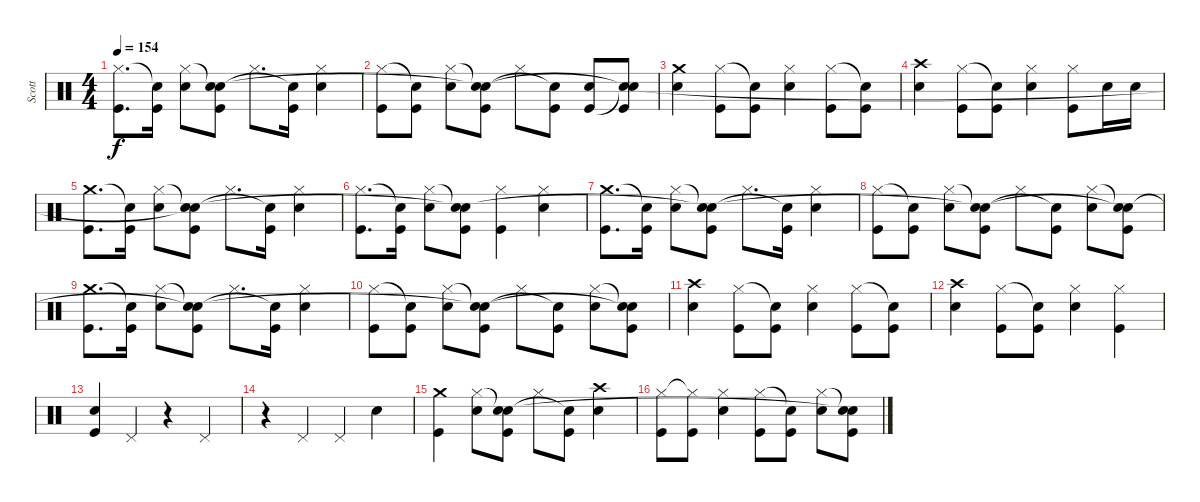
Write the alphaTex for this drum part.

\track ("Scott" "Scott") {instrument percussion}
\staff {score}
\articulation defaults
\ts (4 4)
\tempo 154
\clef neutral
\ks c
("Kick (hit)" "Hi-Hat (closed)").8{d dy f} ("Kick (hit)" "Snare (hit)"{t}).16 ("Snare (hit) 2" "Hi-Hat (closed)").8 ("Kick (hit)" "Snare (hit)"{t} "Snare (hit)"{t}).8 "Hi-Hat (closed)".8{d} ("Kick (hit)" "Snare (hit)"{t}).16 ("Snare (hit) 2" "Hi-Hat (closed)").4 |
("Kick (hit)" "Hi-Hat (closed)").8 ("Kick (hit)" "Snare (hit)"{t}).8 ("Snare (hit) 2" "Hi-Hat (closed)").8 ("Kick (hit)" "Snare (hit)"{t} "Snare (hit)"{t}).8 "Hi-Hat (closed)".8 ("Kick (hit)" "Snare (hit)"{t}).8 ("Snare (hit) 2" "Kick (hit)").8 ("Kick (hit)" "Snare (hit)"{t} "Snare (hit)"{t}).8 |
("Snare (hit) 2" "Crash medium (hit)").4 ("Kick (hit)" "Hi-Hat (closed)").8 ("Kick (hit)" "Snare (hit)"{t}).8 ("Snare (hit) 2" "Hi-Hat (closed)").4 ("Kick (hit)" "Hi-Hat (closed)").8 ("Kick (hit)" "Snare (hit)"{t}).8 |
("Snare (hit) 2" "Crash high (hit)").4 ("Kick (hit)" "Hi-Hat (closed)").8 ("Kick (hit)" "Snare (hit)"{t}).8 ("Snare (hit) 2" "Hi-Hat (closed)").4 ("Kick (hit)" "Hi-Hat (closed)").8 "Snare (hit) 2".16 "Snare (hit) 2".16 |
("Kick (hit)" "Crash medium (hit)").8{d} ("Kick (hit)" "Snare (hit)"{t}).16 ("Snare (hit) 2" "Hi-Hat (closed)").8 ("Kick (hit)" "Snare (hit)"{t} "Snare (hit)"{t}).8 "Hi-Hat (closed)".8{d} ("Kick (hit)" "Snare (hit)"{t}).16 ("Snare (hit) 2" "Hi-Hat (closed)").4 |
("Kick (hit)" "Hi-Hat (closed)").8{d} ("Kick (hit)" "Snare (hit)"{t}).16 ("Snare (hit) 2" "Hi-Hat (closed)").8 ("Kick (hit)" "Snare (hit)"{t} "Snare (hit)"{t}).8 ("Kick (hit)" "Hi-Hat (closed)").4 ("Snare (hit) 2" "Hi-Hat (closed)").4 |
("Kick (hit)" "Crash medium (hit)").8{d} ("Kick (hit)" "Snare (hit)"{t}).16 ("Snare (hit) 2" "Hi-Hat (closed)").8 ("Kick (hit)" "Snare (hit)"{t} "Snare (hit)"{t}).8 "Hi-Hat (closed)".8{d} ("Kick (hit)" "Snare (hit)"{t}).16 ("Snare (hit) 2" "Hi-Hat (closed)").4 |
("Kick (hit)" "Hi-Hat (closed)").8 ("Kick (hit)" "Snare (hit)"{t}).8 ("Snare (hit) 2" "Hi-Hat (closed)").8 ("Kick (hit)" "Snare (hit)"{t} "Snare (hit)"{t}).8 "Hi-Hat (closed)".8 ("Kick (hit)" "Snare (hit)"{t}).8 ("Snare (hit) 2" "Hi-Hat (closed)").8 ("Kick (hit)" "Snare (hit)"{t} "Snare (hit)"{t}).8 |
("Kick (hit)" "Crash medium (hit)").8{d} ("Kick (hit)" "Snare (hit)"{t}).16 ("Snare (hit) 2" "Hi-Hat (closed)").8 ("Kick (hit)" "Snare (hit)"{t} "Snare (hit)"{t}).8 "Hi-Hat (closed)".8{d} ("Kick (hit)" "Snare (hit)"{t}).16 ("Snare (hit) 2" "Hi-Hat (closed)").4 |
("Kick (hit)" "Hi-Hat (closed)").8 ("Kick (hit)" "Snare (hit)"{t}).8 ("Snare (hit) 2" "Hi-Hat (closed)").8 ("Kick (hit)" "Snare (hit)"{t} "Snare (hit)"{t}).8 "Hi-Hat (closed)".8 ("Kick (hit)" "Snare (hit)"{t}).8 ("Snare (hit) 2" "Hi-Hat (closed)").8 ("Kick (hit)" "Snare (hit)"{t} "Snare (hit)"{t}).8 |
("Snare (hit) 2" "Crash high (hit)").4 ("Kick (hit)" "Hi-Hat (closed)").8 ("Kick (hit)" "Snare (hit)"{t}).8 ("Snare (hit) 2" "Hi-Hat (closed)").4 ("Kick (hit)" "Hi-Hat (closed)").8 ("Kick (hit)" "Snare (hit)"{t}).8 |
("Snare (hit) 2" "Crash high (hit)").4 ("Kick (hit)" "Hi-Hat (closed)").8 ("Kick (hit)" "Snare (hit)"{t}).8 ("Snare (hit) 2" "Hi-Hat (closed)").4 ("Kick (hit)" "Hi-Hat (closed)").4 |
("Kick (hit)" "Snare (hit) 2").4 "Pedal Hi-Hat (hit)".4 r.4 "Pedal Hi-Hat (hit)".4 |
r.4 "Pedal Hi-Hat (hit)".4 "Pedal Hi-Hat (hit)".4 "Snare (hit) 2".4 |
("Kick (hit)" "Crash medium (hit)").4 ("Snare (hit) 2" "Hi-Hat (closed)").8 ("Kick (hit)" "Snare (hit)"{t} "Snare (hit)").8 "Hi-Hat (closed)".8 ("Kick (hit)" "Snare (hit)"{t}).8 ("Snare (hit) 2" "Crash high (hit)").4 |
("Kick (hit)" "Hi-Hat (closed)").8 ("Kick (hit)" "Hi-Hat (closed)"{t}).8 ("Snare (hit) 2" "Hi-Hat (closed)").4 ("Kick (hit)" "Hi-Hat (closed)").8 ("Kick (hit)" "Snare (hit)"{t}).8 ("Snare (hit) 2" "Hi-Hat (closed)").8 ("Kick (hit)" "Snare (hit)"{t} "Snare (hit)"{t}).8
